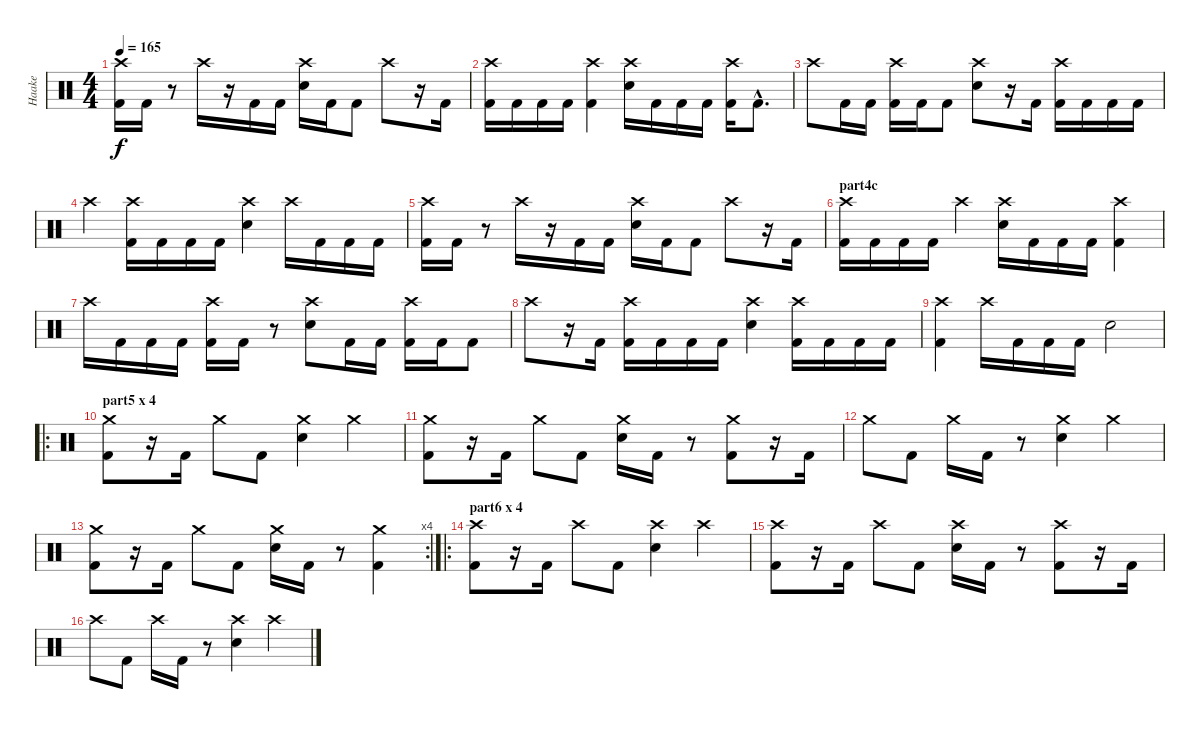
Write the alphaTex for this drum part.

\track ("Haake" "Haake") {instrument percussion}
\staff {score}
\articulation defaults
\ts (4 4)
\tempo 165
\clef neutral
\ks c
("Crash high (hit)" "Kick (hit) 2").16{dy f} "Kick (hit) 2".16 r.8 "Crash high (hit)".16 r.16 "Kick (hit) 2".16 "Kick (hit) 2".16 ("Crash high (hit)" "Electric Snare (hit)").16 "Kick (hit) 2".16 "Kick (hit) 2".8 "Crash high (hit)".8 r.16 "Kick (hit) 2".16 |
("Crash high (hit)" "Kick (hit) 2").16 "Kick (hit) 2".16 "Kick (hit) 2".16 "Kick (hit) 2".16 ("Crash high (hit)" "Kick (hit) 2").4 ("Crash high (hit)" "Electric Snare (hit)").16 "Kick (hit) 2".16 "Kick (hit) 2".16 "Kick (hit) 2".16 ("Crash high (hit)" "Kick (hit) 2").16 "Kick (hit) 2"{hac}.8{d} |
"Crash high (hit)".8 "Kick (hit) 2".16 "Kick (hit) 2".16 ("Crash high (hit)" "Kick (hit) 2").16 "Kick (hit) 2".16 "Kick (hit) 2".8 ("Crash high (hit)" "Electric Snare (hit)").8 r.16 "Kick (hit) 2".16 ("Crash high (hit)" "Kick (hit) 2").16 "Kick (hit) 2".16 "Kick (hit) 2".16 "Kick (hit) 2".16 |
"Crash high (hit)".4 ("Crash high (hit)" "Kick (hit) 2").16 "Kick (hit) 2".16 "Kick (hit) 2".16 "Kick (hit) 2".16 ("Crash high (hit)" "Electric Snare (hit)").4 "Crash high (hit)".16 "Kick (hit) 2".16 "Kick (hit) 2".16 "Kick (hit) 2".16 |
("Crash high (hit)" "Kick (hit) 2").16 "Kick (hit) 2".16 r.8 "Crash high (hit)".16 r.16 "Kick (hit) 2".16 "Kick (hit) 2".16 ("Crash high (hit)" "Electric Snare (hit)").16 "Kick (hit) 2".16 "Kick (hit) 2".8 "Crash high (hit)".8 r.16 "Kick (hit) 2".16 |
\section ("" "part4c")
("Crash high (hit)" "Kick (hit) 2").16 "Kick (hit) 2".16 "Kick (hit) 2".16 "Kick (hit) 2".16 "Crash high (hit)".4 ("Crash high (hit)" "Electric Snare (hit)").16 "Kick (hit) 2".16 "Kick (hit) 2".16 "Kick (hit) 2".16 ("Crash high (hit)" "Kick (hit) 2").4 |
"Crash high (hit)".16 "Kick (hit) 2".16 "Kick (hit) 2".16 "Kick (hit) 2".16 ("Crash high (hit)" "Kick (hit) 2").16 "Kick (hit) 2".16 r.8 ("Crash high (hit)" "Electric Snare (hit)").8 "Kick (hit) 2".16 "Kick (hit) 2".16 ("Crash high (hit)" "Kick (hit) 2").16 "Kick (hit) 2".16 "Kick (hit) 2".8 |
"Crash high (hit)".8 r.16 "Kick (hit) 2".16 ("Crash high (hit)" "Kick (hit) 2").16 "Kick (hit) 2".16 "Kick (hit) 2".16 "Kick (hit) 2".16 ("Crash high (hit)" "Electric Snare (hit)").4 ("Crash high (hit)" "Kick (hit) 2").16 "Kick (hit) 2".16 "Kick (hit) 2".16 "Kick (hit) 2".16 |
("Crash high (hit)" "Kick (hit) 2").4 "Crash high (hit)".16 "Kick (hit) 2".16 "Kick (hit) 2".16 "Kick (hit) 2".16 "Electric Snare (hit)".2 |
\ro
\section ("" "part5 x 4")
("Crash medium (hit)" "Kick (hit) 2").8 r.16 "Kick (hit) 2".16 "Crash medium (hit)".8 "Kick (hit) 2".8 ("Crash medium (hit)" "Electric Snare (hit)").4 "Crash medium (hit)".4 |
("Crash medium (hit)" "Kick (hit) 2").8 r.16 "Kick (hit) 2".16 "Crash medium (hit)".8 "Kick (hit) 2".8 ("Crash medium (hit)" "Electric Snare (hit)").16 "Kick (hit) 2".16 r.8 ("Crash medium (hit)" "Kick (hit) 2").8 r.16 "Kick (hit) 2".16 |
"Crash medium (hit)".8 "Kick (hit) 2".8 "Crash medium (hit)".16 "Kick (hit) 2".16 r.8 ("Crash medium (hit)" "Electric Snare (hit)").4 "Crash medium (hit)".4 |
\rc 4
("Crash medium (hit)" "Kick (hit) 2").8 r.16 "Kick (hit) 2".16 "Crash medium (hit)".8 "Kick (hit) 2".8 ("Crash medium (hit)" "Electric Snare (hit)").16 "Kick (hit) 2".16 r.8 ("Crash medium (hit)" "Kick (hit) 2").4 |
\ro
\section ("" "part6 x 4")
("Crash high (hit)" "Kick (hit) 2").8 r.16 "Kick (hit) 2".16 "Crash high (hit)".8 "Kick (hit) 2".8 ("Crash high (hit)" "Electric Snare (hit)").4 "Crash high (hit)".4 |
("Crash high (hit)" "Kick (hit) 2").8 r.16 "Kick (hit) 2".16 "Crash high (hit)".8 "Kick (hit) 2".8 ("Crash high (hit)" "Electric Snare (hit)").16 "Kick (hit) 2".16 r.8 ("Crash high (hit)" "Kick (hit) 2").8 r.16 "Kick (hit) 2".16 |
"Crash high (hit)".8 "Kick (hit) 2".8 "Crash high (hit)".16 "Kick (hit) 2".16 r.8 ("Crash high (hit)" "Electric Snare (hit)").4 "Crash high (hit)".4
